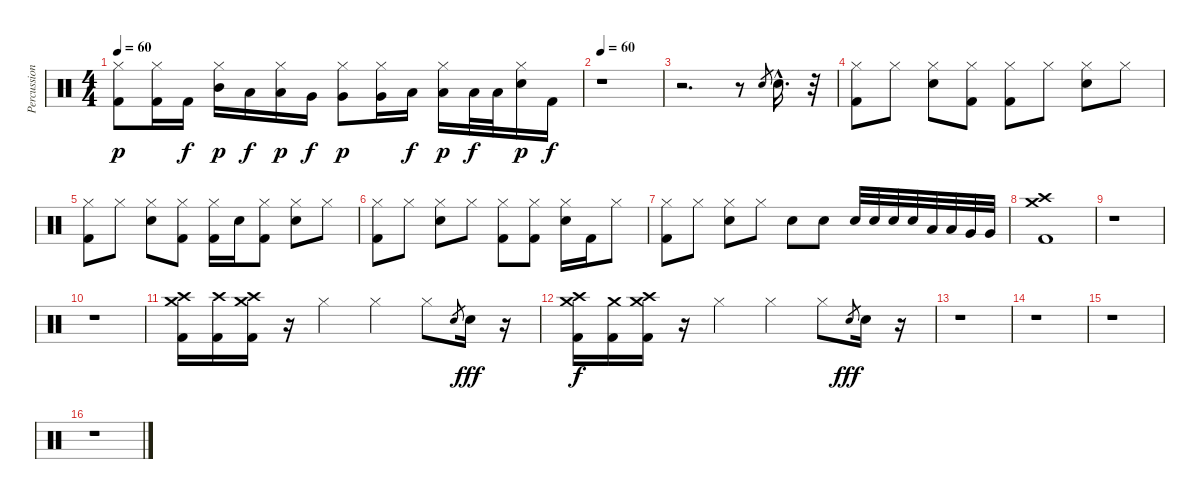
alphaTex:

\track ("Percussion" "Percussion") {instrument percussion}
\staff {score}
\articulation defaults
\ts (4 4)
\tempo 60
\clef neutral
\ks c
("Hi-Hat (closed)" "Kick (hit) 2").8{dy p} ("Hi-Hat (closed)" "Kick (hit) 2").16 "Kick (hit) 2".16{dy f} ("Hi-Hat (closed)" "Mid Tom (hit)").16{dy p} "Low Tom (hit)".16{dy f} ("Hi-Hat (closed)" "Low Tom (hit)").16{dy p} "Very Low Tom (hit)".16{dy f} ("Hi-Hat (closed)" "Very Low Tom (hit)").8{dy p} ("Hi-Hat (closed)" "Very Low Tom (hit)").16 "Low Tom (hit)".16{dy f} ("Hi-Hat (closed)" "Low Floor Tom (hit)").16{dy p} "Low Floor Tom (hit)".32{dy f} "Low Floor Tom (hit)".32 ("Hi-Hat (closed)" "Snare (hit) 2").16{dy p} "Kick (hit) 2".16{dy f} |
\tempo 60
r.1 |
r.2{d} r.8 "Snare (hit) 2".8{gr} "Snare (hit) 2"{hac}.16{d} r.32 |
("Hi-Hat (closed)" "Kick (hit) 2").8 "Hi-Hat (closed)".8 ("Hi-Hat (closed)" "Snare (hit) 2").8 ("Hi-Hat (closed)" "Kick (hit) 2").8 ("Hi-Hat (closed)" "Kick (hit) 2").8 "Hi-Hat (closed)".8 ("Hi-Hat (closed)" "Snare (hit) 2").8 "Hi-Hat (closed)".8 |
("Hi-Hat (closed)" "Kick (hit) 2").8 "Hi-Hat (closed)".8 ("Hi-Hat (closed)" "Snare (hit) 2").8 ("Hi-Hat (closed)" "Kick (hit) 2").8 ("Hi-Hat (closed)" "Kick (hit) 2").16 "Snare (hit) 2".16 ("Hi-Hat (closed)" "Kick (hit) 2").8 ("Hi-Hat (closed)" "Snare (hit) 2").8 "Hi-Hat (closed)".8 |
("Hi-Hat (closed)" "Kick (hit) 2").8 "Hi-Hat (closed)".8 ("Hi-Hat (closed)" "Snare (hit) 2").8 "Hi-Hat (closed)".8 ("Hi-Hat (closed)" "Kick (hit) 2").8 ("Hi-Hat (closed)" "Kick (hit) 2").8 ("Hi-Hat (closed)" "Snare (hit) 2").16 "Kick (hit) 2".16 "Hi-Hat (closed)".8 |
("Hi-Hat (closed)" "Kick (hit) 2").8 "Hi-Hat (closed)".8 ("Hi-Hat (closed)" "Snare (hit) 2").8 "Hi-Hat (closed)".8 "Snare (hit) 2".8 "Snare (hit) 2".8 "Snare (hit) 2".32 "Snare (hit) 2".32 "Snare (hit) 2".32 "Snare (hit) 2".32 "Low Tom (hit)".32 "Low Tom (hit)".32 "Very Low Tom (hit)".32 "Very Low Tom (hit)".32 |
("Crash medium (hit)" "Crash high (hit)" "Kick (hit) 2").1 |
r.1 |
r.1 |
("Crash medium (hit)" "Crash high (hit)" "Kick (hit) 2").16 ("Crash high (hit)" "Kick (hit) 2").16 ("Crash medium (hit)" "Crash high (hit)" "Kick (hit) 2").16 r.16 "Hi-Hat (closed)".4 "Hi-Hat (closed)".4 "Hi-Hat (closed)".8 "Snare (hit) 2".8{gr} "Snare (hit) 2".16{dy fff} r.16 |
("Crash medium (hit)" "Crash high (hit)" "Kick (hit) 2").16{dy f} ("Crash medium (hit)" "Kick (hit) 2").16 ("Crash medium (hit)" "Crash high (hit)" "Kick (hit) 2").16 r.16 "Hi-Hat (closed)".4 "Hi-Hat (closed)".4 "Hi-Hat (closed)".8 "Snare (hit) 2".8{gr dy fff} "Snare (hit) 2".16 r.16 |
r.1 |
r.1 |
r.1 |
r.1
